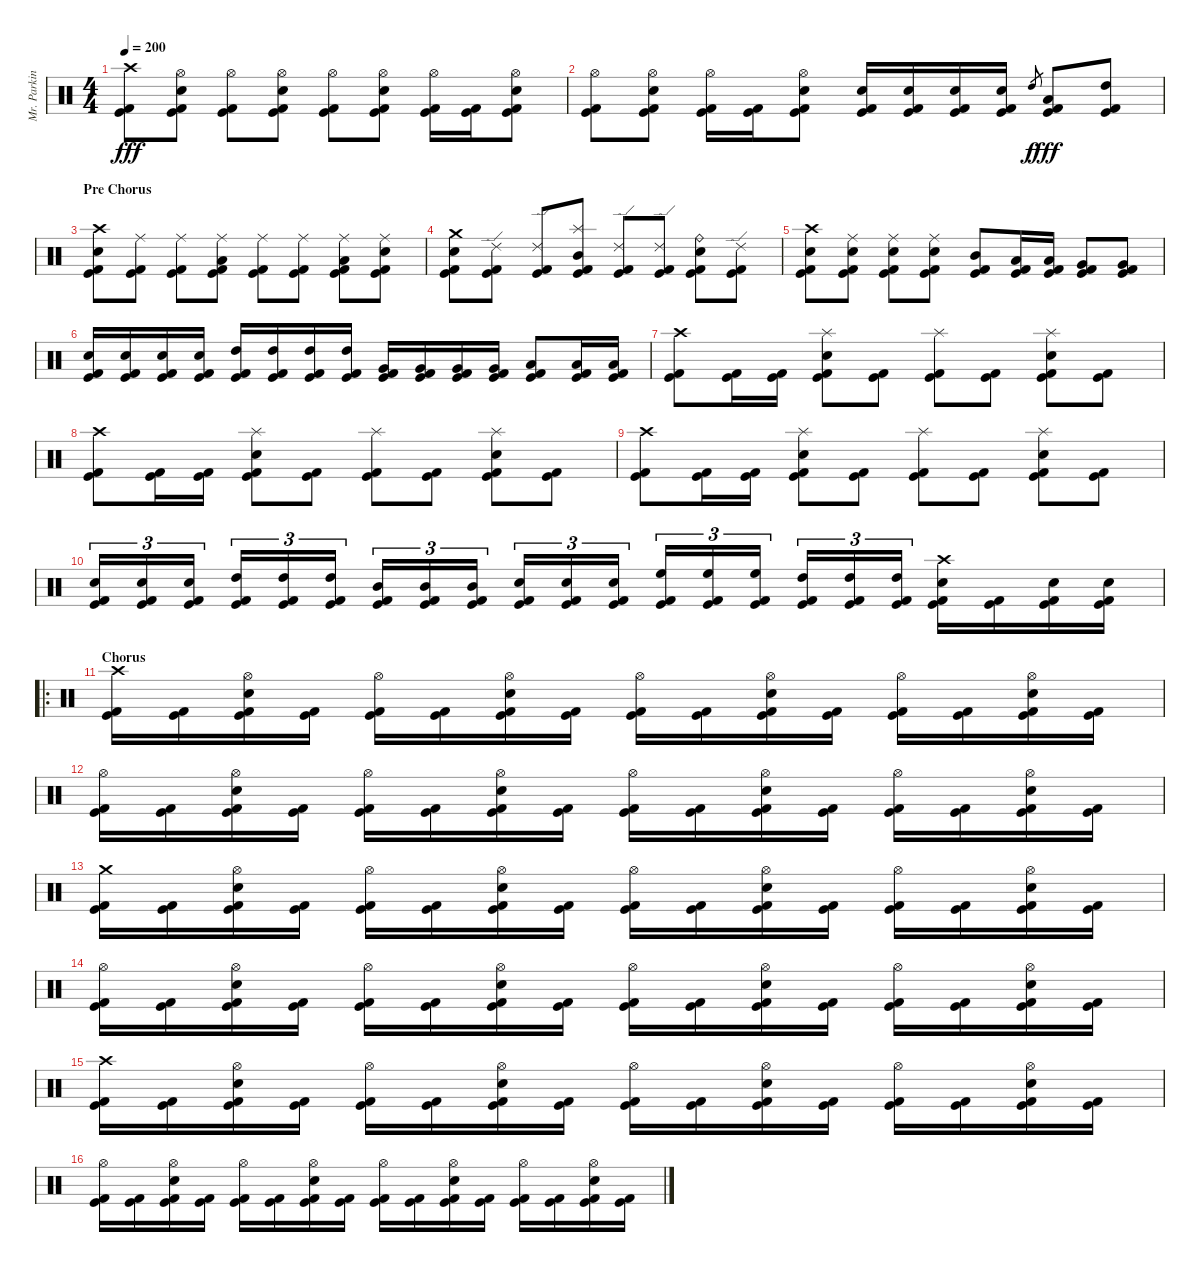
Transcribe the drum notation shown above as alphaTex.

\track ("Mr. Parkinson" "Mr. Parkin") {instrument percussion}
\staff {score}
\articulation defaults
\ts (4 4)
\tempo 200
\clef neutral
\ks c
("Crash high (hit)" "Kick (hit)" "Kick (hit) 2").8{dy fff} ("Hi-Hat (open)" "Electric Snare (hit)" "Kick (hit)" "Kick (hit) 2").8 ("Hi-Hat (open)" "Kick (hit)" "Kick (hit) 2").8 ("Hi-Hat (open)" "Electric Snare (hit)" "Kick (hit)" "Kick (hit) 2").8 ("Hi-Hat (open)" "Kick (hit)" "Kick (hit) 2").8 ("Hi-Hat (open)" "Electric Snare (hit)" "Kick (hit)" "Kick (hit) 2").8 ("Hi-Hat (open)" "Kick (hit)" "Kick (hit) 2").16 ("Kick (hit)" "Kick (hit) 2").16 ("Hi-Hat (open)" "Electric Snare (hit)" "Kick (hit)" "Kick (hit) 2").8 |
("Hi-Hat (open)" "Kick (hit)" "Kick (hit) 2").8 ("Hi-Hat (open)" "Electric Snare (hit)" "Kick (hit)" "Kick (hit) 2").8 ("Hi-Hat (open)" "Kick (hit)" "Kick (hit) 2").16 ("Kick (hit)" "Kick (hit) 2").16 ("Hi-Hat (open)" "Electric Snare (hit)" "Kick (hit)" "Kick (hit) 2").8 ("Electric Snare (hit)" "Kick (hit)" "Kick (hit) 2").16 ("Electric Snare (hit)" "Kick (hit)" "Kick (hit) 2").16 ("Electric Snare (hit)" "Kick (hit)" "Kick (hit) 2").16 ("Electric Snare (hit)" "Kick (hit)" "Kick (hit) 2").16 "High Tom (hit)".8{gr dy f} ("Low Tom (hit)" "Kick (hit)" "Kick (hit) 2").8{dy fff} ("High Tom (hit)" "Kick (hit)" "Kick (hit) 2").8 |
\section ("" "Pre Chorus")
("Crash high (hit)" "Electric Snare (hit)" "Kick (hit)" "Kick (hit) 2").8 ("Ride (middle)" "Kick (hit)" "Kick (hit) 2").8 ("Ride (middle)" "Kick (hit)" "Kick (hit) 2").8 ("Ride (middle)" "Low Tom (hit)" "Kick (hit)" "Kick (hit) 2").8 ("Ride (middle)" "Kick (hit)" "Kick (hit) 2").8 ("Ride (middle)" "Kick (hit)" "Kick (hit) 2").8 ("Ride (middle)" "Low Tom (hit)" "Kick (hit)" "Kick (hit) 2").8 ("Ride (middle)" "Electric Snare (hit)" "Kick (hit)" "Kick (hit) 2").8 |
("Crash medium (hit)" "Electric Snare (hit)" "Kick (hit)" "Kick (hit) 2").8 ("Ride (edge) 2" "Kick (hit)" "Kick (hit) 2").8 ("Ride (edge) 2" "Kick (hit)" "Kick (hit) 2").8 ("Splash (hit)" "Mid Tom (hit)" "Kick (hit)" "Kick (hit) 2").8 ("Ride (edge) 2" "Kick (hit)" "Kick (hit) 2").8 ("Ride (edge) 2" "Kick (hit)" "Kick (hit) 2").8 ("Ride (bell)" "Electric Snare (hit)" "Kick (hit)" "Kick (hit) 2").8 ("Ride (edge) 2" "Kick (hit)" "Kick (hit) 2").8 |
("Crash high (hit)" "Electric Snare (hit)" "Kick (hit)" "Kick (hit) 2").8 ("Ride (middle)" "Electric Snare (hit)" "Kick (hit)" "Kick (hit) 2").8 ("Ride (middle)" "Electric Snare (hit)" "Kick (hit)" "Kick (hit) 2").8 ("Ride (middle)" "Electric Snare (hit)" "Kick (hit)" "Kick (hit) 2").8 ("Mid Tom (hit)" "Kick (hit)" "Kick (hit) 2").8 ("Low Tom (hit)" "Kick (hit)" "Kick (hit) 2").16 ("Low Tom (hit)" "Kick (hit)" "Kick (hit) 2").16 ("Very Low Tom (hit)" "Kick (hit)" "Kick (hit) 2").8 ("Very Low Tom (hit)" "Kick (hit)" "Kick (hit) 2").8 |
("Electric Snare (hit)" "Kick (hit) 2" "Kick (hit)").16 ("Electric Snare (hit)" "Kick (hit) 2" "Kick (hit)").16 ("Electric Snare (hit)" "Kick (hit) 2" "Kick (hit)").16 ("Electric Snare (hit)" "Kick (hit) 2" "Kick (hit)").16 ("High Tom (hit)" "Kick (hit) 2" "Kick (hit)").16 ("High Tom (hit)" "Kick (hit) 2" "Kick (hit)").16 ("High Tom (hit)" "Kick (hit) 2" "Kick (hit)").16 ("High Tom (hit)" "Kick (hit) 2" "Kick (hit)").16 ("Very Low Tom (hit)" "Kick (hit) 2" "Kick (hit)").16 ("Very Low Tom (hit)" "Kick (hit) 2" "Kick (hit)").16 ("Very Low Tom (hit)" "Kick (hit) 2" "Kick (hit)").16 ("Very Low Tom (hit)" "Kick (hit) 2" "Kick (hit)").16 ("Low Floor Tom (hit)" "Kick (hit) 2" "Kick (hit)").8 ("Low Floor Tom (hit)" "Kick (hit) 2" "Kick (hit)").16 ("Low Floor Tom (hit)" "Kick (hit)" "Kick (hit) 2").16 |
("Crash high (hit)" "Kick (hit)" "Kick (hit) 2").8 ("Kick (hit)" "Kick (hit) 2").16 ("Kick (hit)" "Kick (hit) 2").16 ("Splash (hit)" "Electric Snare (hit)" "Kick (hit)" "Kick (hit) 2").8 ("Kick (hit)" "Kick (hit) 2").8 ("Splash (hit)" "Kick (hit)" "Kick (hit) 2").8 ("Kick (hit)" "Kick (hit) 2").8 ("Splash (hit)" "Electric Snare (hit)" "Kick (hit)" "Kick (hit) 2").8 ("Kick (hit)" "Kick (hit) 2").8 |
("Crash high (hit)" "Kick (hit)" "Kick (hit) 2").8 ("Kick (hit)" "Kick (hit) 2").16 ("Kick (hit)" "Kick (hit) 2").16 ("Splash (hit)" "Electric Snare (hit)" "Kick (hit)" "Kick (hit) 2").8 ("Kick (hit)" "Kick (hit) 2").8 ("Splash (hit)" "Kick (hit)" "Kick (hit) 2").8 ("Kick (hit)" "Kick (hit) 2").8 ("Splash (hit)" "Electric Snare (hit)" "Kick (hit)" "Kick (hit) 2").8 ("Kick (hit)" "Kick (hit) 2").8 |
("Crash high (hit)" "Kick (hit)" "Kick (hit) 2").8 ("Kick (hit)" "Kick (hit) 2").16 ("Kick (hit)" "Kick (hit) 2").16 ("Splash (hit)" "Electric Snare (hit)" "Kick (hit)" "Kick (hit) 2").8 ("Kick (hit)" "Kick (hit) 2").8 ("Splash (hit)" "Kick (hit)" "Kick (hit) 2").8 ("Kick (hit)" "Kick (hit) 2").8 ("Splash (hit)" "Electric Snare (hit)" "Kick (hit)" "Kick (hit) 2").8 ("Kick (hit)" "Kick (hit) 2").8 |
("Electric Snare (hit)" "Kick (hit) 2" "Kick (hit)").16{tu (3 2)} ("Electric Snare (hit)" "Kick (hit) 2" "Kick (hit)").16{tu (3 2)} ("Electric Snare (hit)" "Kick (hit) 2" "Kick (hit)").16{tu (3 2)} ("High Tom (hit)" "Kick (hit) 2" "Kick (hit)").16{tu (3 2)} ("High Tom (hit)" "Kick (hit) 2" "Kick (hit)").16{tu (3 2)} ("High Tom (hit)" "Kick (hit) 2" "Kick (hit)").16{tu (3 2)} ("Mid Tom (hit)" "Kick (hit) 2" "Kick (hit)").16{tu (3 2)} ("Mid Tom (hit)" "Kick (hit) 2" "Kick (hit)").16{tu (3 2)} ("Mid Tom (hit)" "Kick (hit) 2" "Kick (hit)").16{tu (3 2)} ("Electric Snare (hit)" "Kick (hit) 2" "Kick (hit)").16{tu (3 2)} ("Electric Snare (hit)" "Kick (hit) 2" "Kick (hit)").16{tu (3 2)} ("Electric Snare (hit)" "Kick (hit) 2" "Kick (hit)").16{tu (3 2)} ("High Floor Tom (hit)" "Kick (hit) 2" "Kick (hit)").16{tu (3 2)} ("High Floor Tom (hit)" "Kick (hit) 2" "Kick (hit)").16{tu (3 2)} ("High Floor Tom (hit)" "Kick (hit)" "Kick (hit) 2").16{tu (3 2)} ("High Tom (hit)" "Kick (hit)" "Kick (hit) 2").16{tu (3 2)} ("High Tom (hit)" "Kick (hit)" "Kick (hit) 2").16{tu (3 2)} ("High Tom (hit)" "Kick (hit)" "Kick (hit) 2").16{tu (3 2)} ("Crash high (hit)" "Electric Snare (hit)" "Kick (hit)" "Kick (hit) 2").16 ("Kick (hit)" "Kick (hit) 2").16 ("Electric Snare (hit)" "Kick (hit)" "Kick (hit) 2").16 ("Electric Snare (hit)" "Kick (hit)" "Kick (hit) 2").16 |
\ro
\section ("" "Chorus")
("Crash high (hit)" "Kick (hit)" "Kick (hit) 2").16 ("Kick (hit)" "Kick (hit) 2").16 ("Hi-Hat (open)" "Electric Snare (hit)" "Kick (hit)" "Kick (hit) 2").16 ("Kick (hit)" "Kick (hit) 2").16 ("Hi-Hat (open)" "Kick (hit)" "Kick (hit) 2").16 ("Kick (hit)" "Kick (hit) 2").16 ("Hi-Hat (open)" "Electric Snare (hit)" "Kick (hit)" "Kick (hit) 2").16 ("Kick (hit)" "Kick (hit) 2").16 ("Hi-Hat (open)" "Kick (hit)" "Kick (hit) 2").16 ("Kick (hit)" "Kick (hit) 2").16 ("Hi-Hat (open)" "Electric Snare (hit)" "Kick (hit)" "Kick (hit) 2").16 ("Kick (hit)" "Kick (hit) 2").16 ("Hi-Hat (open)" "Kick (hit)" "Kick (hit) 2").16 ("Kick (hit)" "Kick (hit) 2").16 ("Hi-Hat (open)" "Electric Snare (hit)" "Kick (hit)" "Kick (hit) 2").16 ("Kick (hit)" "Kick (hit) 2").16 |
("Hi-Hat (open)" "Kick (hit)" "Kick (hit) 2").16 ("Kick (hit)" "Kick (hit) 2").16 ("Hi-Hat (open)" "Electric Snare (hit)" "Kick (hit)" "Kick (hit) 2").16 ("Kick (hit)" "Kick (hit) 2").16 ("Hi-Hat (open)" "Kick (hit)" "Kick (hit) 2").16 ("Kick (hit)" "Kick (hit) 2").16 ("Hi-Hat (open)" "Electric Snare (hit)" "Kick (hit)" "Kick (hit) 2").16 ("Kick (hit)" "Kick (hit) 2").16 ("Hi-Hat (open)" "Kick (hit)" "Kick (hit) 2").16 ("Kick (hit)" "Kick (hit) 2").16 ("Hi-Hat (open)" "Electric Snare (hit)" "Kick (hit)" "Kick (hit) 2").16 ("Kick (hit)" "Kick (hit) 2").16 ("Hi-Hat (open)" "Kick (hit)" "Kick (hit) 2").16 ("Kick (hit)" "Kick (hit) 2").16 ("Hi-Hat (open)" "Electric Snare (hit)" "Kick (hit)" "Kick (hit) 2").16 ("Kick (hit)" "Kick (hit) 2").16 |
("Crash medium (hit)" "Kick (hit)" "Kick (hit) 2").16 ("Kick (hit)" "Kick (hit) 2").16 ("Hi-Hat (open)" "Electric Snare (hit)" "Kick (hit)" "Kick (hit) 2").16 ("Kick (hit)" "Kick (hit) 2").16 ("Hi-Hat (open)" "Kick (hit)" "Kick (hit) 2").16 ("Kick (hit)" "Kick (hit) 2").16 ("Hi-Hat (open)" "Electric Snare (hit)" "Kick (hit)" "Kick (hit) 2").16 ("Kick (hit)" "Kick (hit) 2").16 ("Hi-Hat (open)" "Kick (hit)" "Kick (hit) 2").16 ("Kick (hit)" "Kick (hit) 2").16 ("Hi-Hat (open)" "Electric Snare (hit)" "Kick (hit)" "Kick (hit) 2").16 ("Kick (hit)" "Kick (hit) 2").16 ("Hi-Hat (open)" "Kick (hit)" "Kick (hit) 2").16 ("Kick (hit)" "Kick (hit) 2").16 ("Hi-Hat (open)" "Electric Snare (hit)" "Kick (hit)" "Kick (hit) 2").16 ("Kick (hit)" "Kick (hit) 2").16 |
("Hi-Hat (open)" "Kick (hit)" "Kick (hit) 2").16 ("Kick (hit)" "Kick (hit) 2").16 ("Hi-Hat (open)" "Electric Snare (hit)" "Kick (hit)" "Kick (hit) 2").16 ("Kick (hit)" "Kick (hit) 2").16 ("Hi-Hat (open)" "Kick (hit)" "Kick (hit) 2").16 ("Kick (hit)" "Kick (hit) 2").16 ("Hi-Hat (open)" "Electric Snare (hit)" "Kick (hit)" "Kick (hit) 2").16 ("Kick (hit)" "Kick (hit) 2").16 ("Hi-Hat (open)" "Kick (hit)" "Kick (hit) 2").16 ("Kick (hit)" "Kick (hit) 2").16 ("Hi-Hat (open)" "Electric Snare (hit)" "Kick (hit)" "Kick (hit) 2").16 ("Kick (hit)" "Kick (hit) 2").16 ("Hi-Hat (open)" "Kick (hit)" "Kick (hit) 2").16 ("Kick (hit)" "Kick (hit) 2").16 ("Hi-Hat (open)" "Electric Snare (hit)" "Kick (hit)" "Kick (hit) 2").16 ("Kick (hit)" "Kick (hit) 2").16 |
("Crash high (hit)" "Kick (hit)" "Kick (hit) 2").16 ("Kick (hit)" "Kick (hit) 2").16 ("Hi-Hat (open)" "Electric Snare (hit)" "Kick (hit)" "Kick (hit) 2").16 ("Kick (hit)" "Kick (hit) 2").16 ("Hi-Hat (open)" "Kick (hit)" "Kick (hit) 2").16 ("Kick (hit)" "Kick (hit) 2").16 ("Hi-Hat (open)" "Electric Snare (hit)" "Kick (hit)" "Kick (hit) 2").16 ("Kick (hit)" "Kick (hit) 2").16 ("Hi-Hat (open)" "Kick (hit)" "Kick (hit) 2").16 ("Kick (hit)" "Kick (hit) 2").16 ("Hi-Hat (open)" "Electric Snare (hit)" "Kick (hit)" "Kick (hit) 2").16 ("Kick (hit)" "Kick (hit) 2").16 ("Hi-Hat (open)" "Kick (hit)" "Kick (hit) 2").16 ("Kick (hit)" "Kick (hit) 2").16 ("Hi-Hat (open)" "Electric Snare (hit)" "Kick (hit)" "Kick (hit) 2").16 ("Kick (hit)" "Kick (hit) 2").16 |
("Hi-Hat (open)" "Kick (hit)" "Kick (hit) 2").16 ("Kick (hit)" "Kick (hit) 2").16 ("Hi-Hat (open)" "Electric Snare (hit)" "Kick (hit)" "Kick (hit) 2").16 ("Kick (hit)" "Kick (hit) 2").16 ("Hi-Hat (open)" "Kick (hit)" "Kick (hit) 2").16 ("Kick (hit)" "Kick (hit) 2").16 ("Hi-Hat (open)" "Electric Snare (hit)" "Kick (hit)" "Kick (hit) 2").16 ("Kick (hit)" "Kick (hit) 2").16 ("Hi-Hat (open)" "Kick (hit)" "Kick (hit) 2").16 ("Kick (hit)" "Kick (hit) 2").16 ("Hi-Hat (open)" "Electric Snare (hit)" "Kick (hit)" "Kick (hit) 2").16 ("Kick (hit)" "Kick (hit) 2").16 ("Hi-Hat (open)" "Kick (hit)" "Kick (hit) 2").16 ("Kick (hit)" "Kick (hit) 2").16 ("Hi-Hat (open)" "Electric Snare (hit)" "Kick (hit)" "Kick (hit) 2").16 ("Kick (hit)" "Kick (hit) 2").16
